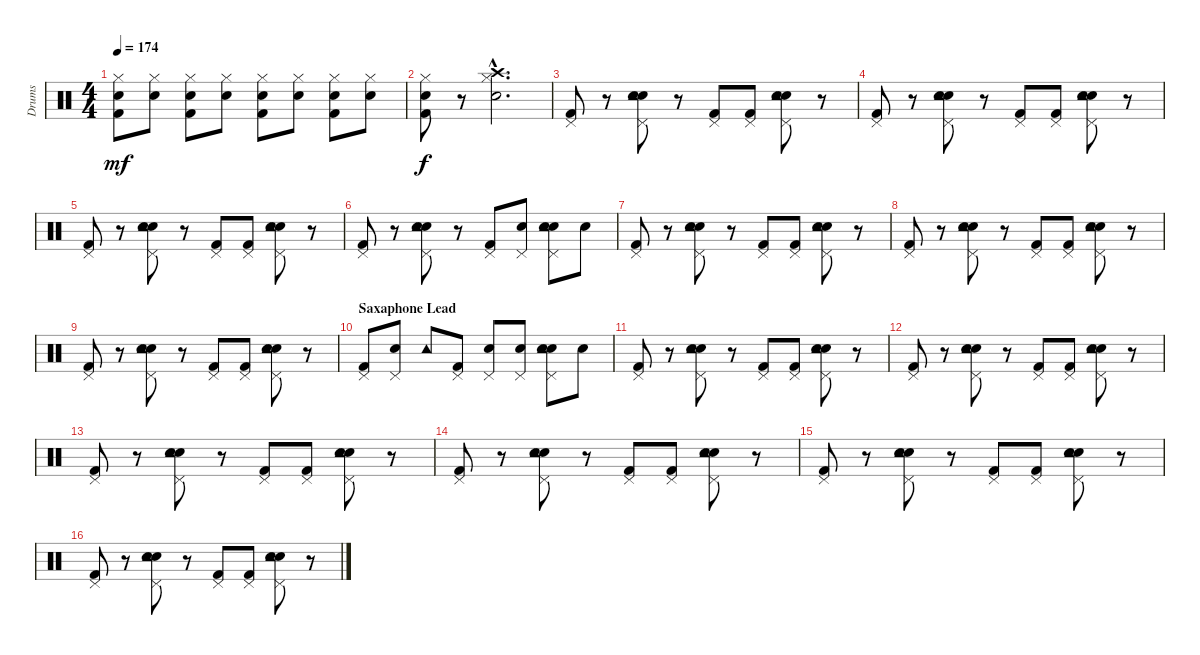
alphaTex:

\track ("Drums" "Drums") {instrument percussion}
\staff {score}
\articulation defaults
\ts (4 4)
\tempo 174
\clef neutral
\ks c
("Hi-Hat (closed)" "Snare (hit) 2" "Kick (hit) 2").8{dy mf} ("Hi-Hat (closed)" "Snare (hit) 2").8 ("Hi-Hat (closed)" "Snare (hit) 2" "Kick (hit) 2").8 ("Hi-Hat (closed)" "Snare (hit) 2").8 ("Hi-Hat (closed)" "Snare (hit) 2" "Kick (hit) 2").8 ("Hi-Hat (closed)" "Snare (hit) 2").8 ("Hi-Hat (closed)" "Snare (hit) 2" "Kick (hit) 2").8 ("Hi-Hat (closed)" "Snare (hit) 2").8 |
("Hi-Hat (closed)" "Snare (hit) 2" "Kick (hit) 2").8{dy f} r.8 ("Crash high (hit)"{hac} "Hi-Hat (closed)"{hac} "Snare (hit) 2"{hac}).2{d} |
("Pedal Hi-Hat (hit)" "Kick (hit) 2").8 r.8 ("Pedal Hi-Hat (hit)" "Hand Clap (hit)" "Tambourine (hit)" "Snare (hit) 2").8 r.8 ("Pedal Hi-Hat (hit)" "Kick (hit) 2").8 ("Pedal Hi-Hat (hit)" "Kick (hit) 2").8 ("Pedal Hi-Hat (hit)" "Hand Clap (hit)" "Tambourine (hit)" "Snare (hit) 2").8 r.8 |
("Pedal Hi-Hat (hit)" "Kick (hit) 2").8 r.8 ("Pedal Hi-Hat (hit)" "Hand Clap (hit)" "Tambourine (hit)" "Snare (hit) 2").8 r.8 ("Pedal Hi-Hat (hit)" "Kick (hit) 2").8 ("Pedal Hi-Hat (hit)" "Kick (hit) 2").8 ("Pedal Hi-Hat (hit)" "Hand Clap (hit)" "Tambourine (hit)" "Snare (hit) 2").8 r.8 |
("Pedal Hi-Hat (hit)" "Kick (hit) 2").8 r.8 ("Pedal Hi-Hat (hit)" "Hand Clap (hit)" "Tambourine (hit)" "Snare (hit) 2").8 r.8 ("Pedal Hi-Hat (hit)" "Kick (hit) 2").8 ("Pedal Hi-Hat (hit)" "Kick (hit) 2").8 ("Pedal Hi-Hat (hit)" "Hand Clap (hit)" "Tambourine (hit)" "Snare (hit) 2").8 r.8 |
("Pedal Hi-Hat (hit)" "Kick (hit) 2").8 r.8 ("Pedal Hi-Hat (hit)" "Hand Clap (hit)" "Tambourine (hit)" "Snare (hit) 2").8 r.8 ("Pedal Hi-Hat (hit)" "Kick (hit) 2").8 ("Pedal Hi-Hat (hit)" "Snare (hit) 2").8 ("Pedal Hi-Hat (hit)" "Hand Clap (hit)" "Tambourine (hit)" "Snare (hit) 2").8 "Snare (hit) 2".8 |
("Pedal Hi-Hat (hit)" "Kick (hit) 2").8 r.8 ("Pedal Hi-Hat (hit)" "Hand Clap (hit)" "Tambourine (hit)" "Snare (hit) 2").8 r.8 ("Pedal Hi-Hat (hit)" "Kick (hit) 2").8 ("Pedal Hi-Hat (hit)" "Kick (hit) 2").8 ("Pedal Hi-Hat (hit)" "Hand Clap (hit)" "Tambourine (hit)" "Snare (hit) 2").8 r.8 |
("Pedal Hi-Hat (hit)" "Kick (hit) 2").8 r.8 ("Pedal Hi-Hat (hit)" "Hand Clap (hit)" "Tambourine (hit)" "Snare (hit) 2").8 r.8 ("Pedal Hi-Hat (hit)" "Kick (hit) 2").8 ("Pedal Hi-Hat (hit)" "Kick (hit) 2").8 ("Pedal Hi-Hat (hit)" "Hand Clap (hit)" "Tambourine (hit)" "Snare (hit) 2").8 r.8 |
("Pedal Hi-Hat (hit)" "Kick (hit) 2").8 r.8 ("Pedal Hi-Hat (hit)" "Hand Clap (hit)" "Tambourine (hit)" "Snare (hit) 2").8 r.8 ("Pedal Hi-Hat (hit)" "Kick (hit) 2").8 ("Pedal Hi-Hat (hit)" "Kick (hit) 2").8 ("Pedal Hi-Hat (hit)" "Hand Clap (hit)" "Tambourine (hit)" "Snare (hit) 2").8 r.8 |
\section ("" "Saxaphone Lead")
("Pedal Hi-Hat (hit)" "Kick (hit) 2").8 ("Pedal Hi-Hat (hit)" "Snare (hit) 2").8 "Tambourine (hit)".8 ("Pedal Hi-Hat (hit)" "Kick (hit) 2").8 ("Pedal Hi-Hat (hit)" "Snare (hit) 2").8 ("Pedal Hi-Hat (hit)" "Snare (hit) 2").8 ("Pedal Hi-Hat (hit)" "Hand Clap (hit)" "Tambourine (hit)" "Snare (hit) 2").8 "Snare (hit) 2".8 |
("Pedal Hi-Hat (hit)" "Kick (hit) 2").8 r.8 ("Pedal Hi-Hat (hit)" "Hand Clap (hit)" "Tambourine (hit)" "Snare (hit) 2").8 r.8 ("Pedal Hi-Hat (hit)" "Kick (hit) 2").8 ("Pedal Hi-Hat (hit)" "Kick (hit) 2").8 ("Pedal Hi-Hat (hit)" "Hand Clap (hit)" "Tambourine (hit)" "Snare (hit) 2").8 r.8 |
("Pedal Hi-Hat (hit)" "Kick (hit) 2").8 r.8 ("Pedal Hi-Hat (hit)" "Hand Clap (hit)" "Tambourine (hit)" "Snare (hit) 2").8 r.8 ("Pedal Hi-Hat (hit)" "Kick (hit) 2").8 ("Pedal Hi-Hat (hit)" "Kick (hit) 2").8 ("Pedal Hi-Hat (hit)" "Hand Clap (hit)" "Tambourine (hit)" "Snare (hit) 2").8 r.8 |
("Pedal Hi-Hat (hit)" "Kick (hit) 2").8 r.8 ("Pedal Hi-Hat (hit)" "Hand Clap (hit)" "Tambourine (hit)" "Snare (hit) 2").8 r.8 ("Pedal Hi-Hat (hit)" "Kick (hit) 2").8 ("Pedal Hi-Hat (hit)" "Kick (hit) 2").8 ("Pedal Hi-Hat (hit)" "Hand Clap (hit)" "Tambourine (hit)" "Snare (hit) 2").8 r.8 |
("Pedal Hi-Hat (hit)" "Kick (hit) 2").8 r.8 ("Pedal Hi-Hat (hit)" "Hand Clap (hit)" "Tambourine (hit)" "Snare (hit) 2").8 r.8 ("Pedal Hi-Hat (hit)" "Kick (hit) 2").8 ("Pedal Hi-Hat (hit)" "Kick (hit) 2").8 ("Pedal Hi-Hat (hit)" "Hand Clap (hit)" "Tambourine (hit)" "Snare (hit) 2").8 r.8 |
("Pedal Hi-Hat (hit)" "Kick (hit) 2").8 r.8 ("Pedal Hi-Hat (hit)" "Hand Clap (hit)" "Tambourine (hit)" "Snare (hit) 2").8 r.8 ("Pedal Hi-Hat (hit)" "Kick (hit) 2").8 ("Pedal Hi-Hat (hit)" "Kick (hit) 2").8 ("Pedal Hi-Hat (hit)" "Hand Clap (hit)" "Tambourine (hit)" "Snare (hit) 2").8 r.8 |
("Pedal Hi-Hat (hit)" "Kick (hit) 2").8 r.8 ("Pedal Hi-Hat (hit)" "Hand Clap (hit)" "Tambourine (hit)" "Snare (hit) 2").8 r.8 ("Pedal Hi-Hat (hit)" "Kick (hit) 2").8 ("Pedal Hi-Hat (hit)" "Kick (hit) 2").8 ("Pedal Hi-Hat (hit)" "Hand Clap (hit)" "Tambourine (hit)" "Snare (hit) 2").8 r.8
